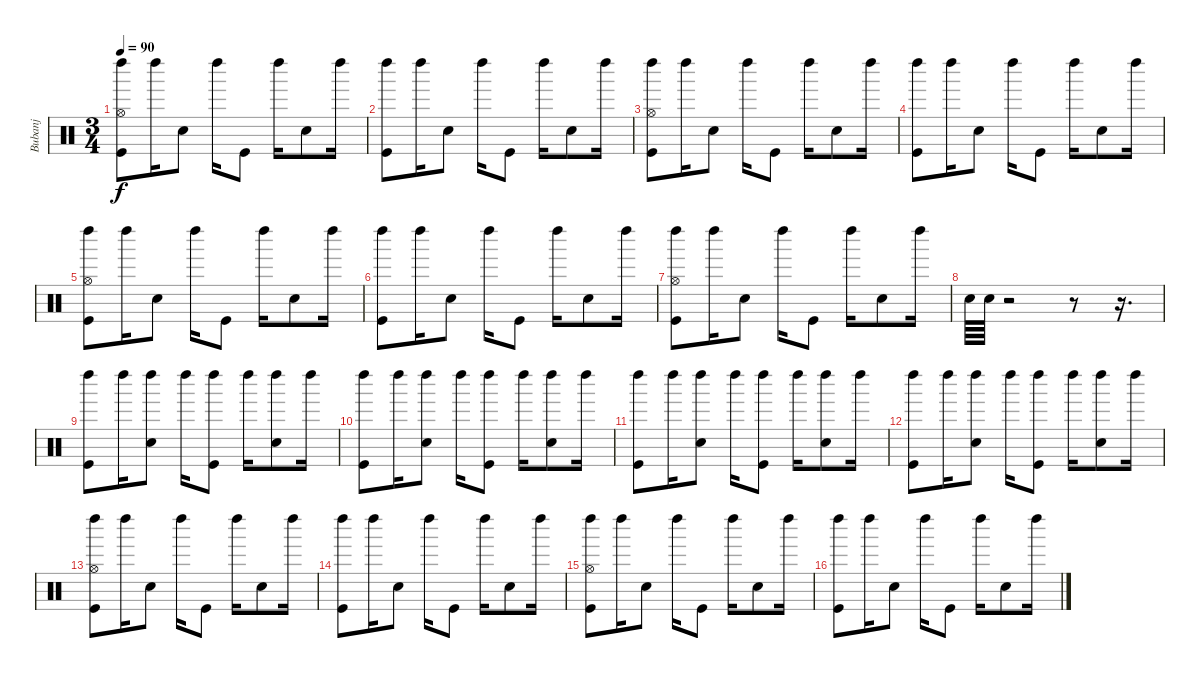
\track ("Bubanj" "Bubanj") {instrument percussion}
\staff {score}
\articulation defaults
\ts (3 4)
\tempo 90
\clef neutral
\ks c
("Left Maraca (hit)" "Hi-Hat (open)" "Kick (hit)").8{dy f} "Left Maraca (hit)".16 "Snare (hit) 2".8 "Left Maraca (hit)".16 "Kick (hit)".8 "Left Maraca (hit)".16 "Snare (hit) 2".8 "Left Maraca (hit)".16 |
("Left Maraca (hit)" "Kick (hit)").8 "Left Maraca (hit)".16 "Snare (hit) 2".8 "Left Maraca (hit)".16 "Kick (hit)".8 "Left Maraca (hit)".16 "Snare (hit) 2".8 "Left Maraca (hit)".16 |
("Left Maraca (hit)" "Hi-Hat (open)" "Kick (hit)").8 "Left Maraca (hit)".16 "Snare (hit) 2".8 "Left Maraca (hit)".16 "Kick (hit)".8 "Left Maraca (hit)".16 "Snare (hit) 2".8 "Left Maraca (hit)".16 |
("Left Maraca (hit)" "Kick (hit)").8 "Left Maraca (hit)".16 "Snare (hit) 2".8 "Left Maraca (hit)".16 "Kick (hit)".8 "Left Maraca (hit)".16 "Snare (hit) 2".8 "Left Maraca (hit)".16 |
("Left Maraca (hit)" "Hi-Hat (open)" "Kick (hit)").8 "Left Maraca (hit)".16 "Snare (hit) 2".8 "Left Maraca (hit)".16 "Kick (hit)".8 "Left Maraca (hit)".16 "Snare (hit) 2".8 "Left Maraca (hit)".16 |
("Left Maraca (hit)" "Kick (hit)").8 "Left Maraca (hit)".16 "Snare (hit) 2".8 "Left Maraca (hit)".16 "Kick (hit)".8 "Left Maraca (hit)".16 "Snare (hit) 2".8 "Left Maraca (hit)".16 |
("Left Maraca (hit)" "Hi-Hat (open)" "Kick (hit)").8 "Left Maraca (hit)".16 "Snare (hit) 2".8 "Left Maraca (hit)".16 "Kick (hit)".8 "Left Maraca (hit)".16 "Snare (hit) 2".8 "Left Maraca (hit)".16 |
"Snare (hit) 2".64 "Snare (hit) 2".64 r.2 r.8 r.16{d} |
("Left Maraca (hit)" "Kick (hit)").8 "Left Maraca (hit)".16 ("Left Maraca (hit)" "Snare (hit) 2").8 "Left Maraca (hit)".16 ("Left Maraca (hit)" "Kick (hit)").8 "Left Maraca (hit)".16 ("Left Maraca (hit)" "Snare (hit) 2").8 "Left Maraca (hit)".16 |
("Left Maraca (hit)" "Kick (hit)").8 "Left Maraca (hit)".16 ("Left Maraca (hit)" "Snare (hit) 2").8 "Left Maraca (hit)".16 ("Left Maraca (hit)" "Kick (hit)").8 "Left Maraca (hit)".16 ("Left Maraca (hit)" "Snare (hit) 2").8 "Left Maraca (hit)".16 |
("Left Maraca (hit)" "Kick (hit)").8 "Left Maraca (hit)".16 ("Left Maraca (hit)" "Snare (hit) 2").8 "Left Maraca (hit)".16 ("Left Maraca (hit)" "Kick (hit)").8 "Left Maraca (hit)".16 ("Left Maraca (hit)" "Snare (hit) 2").8 "Left Maraca (hit)".16 |
("Left Maraca (hit)" "Kick (hit)").8 "Left Maraca (hit)".16 ("Left Maraca (hit)" "Snare (hit) 2").8 "Left Maraca (hit)".16 ("Left Maraca (hit)" "Kick (hit)").8 "Left Maraca (hit)".16 ("Left Maraca (hit)" "Snare (hit) 2").8 "Left Maraca (hit)".16 |
("Left Maraca (hit)" "Hi-Hat (open)" "Kick (hit)").8 "Left Maraca (hit)".16 "Snare (hit) 2".8 "Left Maraca (hit)".16 "Kick (hit)".8 "Left Maraca (hit)".16 "Snare (hit) 2".8 "Left Maraca (hit)".16 |
("Left Maraca (hit)" "Kick (hit)").8 "Left Maraca (hit)".16 "Snare (hit) 2".8 "Left Maraca (hit)".16 "Kick (hit)".8 "Left Maraca (hit)".16 "Snare (hit) 2".8 "Left Maraca (hit)".16 |
("Left Maraca (hit)" "Hi-Hat (open)" "Kick (hit)").8 "Left Maraca (hit)".16 "Snare (hit) 2".8 "Left Maraca (hit)".16 "Kick (hit)".8 "Left Maraca (hit)".16 "Snare (hit) 2".8 "Left Maraca (hit)".16 |
("Left Maraca (hit)" "Kick (hit)").8 "Left Maraca (hit)".16 "Snare (hit) 2".8 "Left Maraca (hit)".16 "Kick (hit)".8 "Left Maraca (hit)".16 "Snare (hit) 2".8 "Left Maraca (hit)".16
